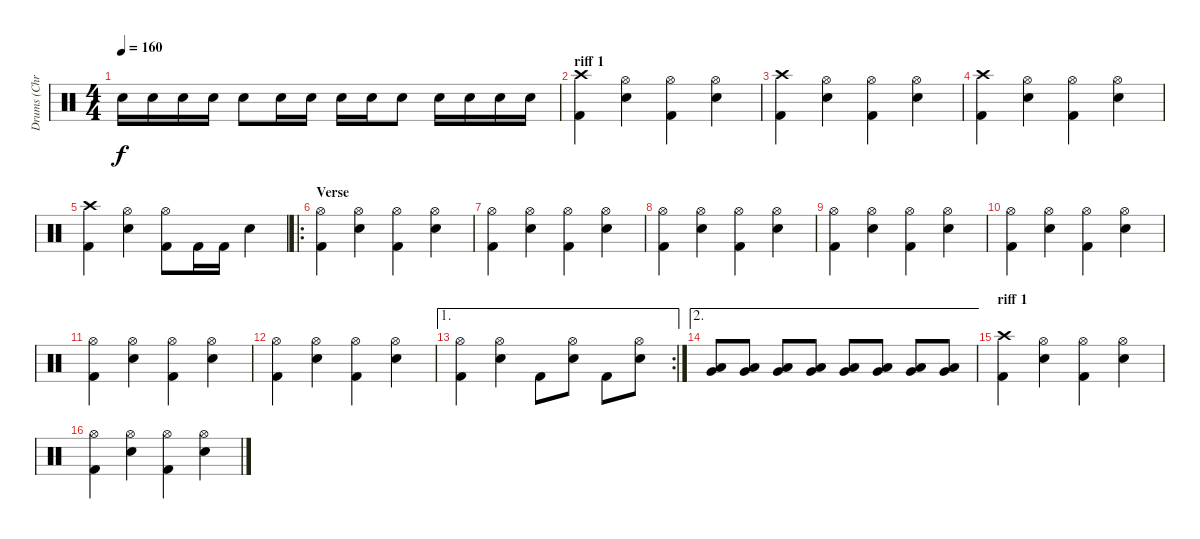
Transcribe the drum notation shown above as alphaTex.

\track ("Drums (Chris Efthimiadis)" "Drums (Chr") {instrument percussion}
\staff {score}
\articulation defaults
\ts (4 4)
\tempo 160
\clef neutral
\ks c "Snare (hit) 2".16{dy f} "Snare (hit) 2".16 "Snare (hit) 2".16 "Snare (hit) 2".16 "Snare (hit) 2".8 "Snare (hit) 2".16 "Snare (hit) 2".16 "Snare (hit) 2".16 "Snare (hit) 2".16 "Snare (hit) 2".8 "Snare (hit) 2".16 "Snare (hit) 2".16 "Snare (hit) 2".16 "Snare (hit) 2".16
|
\section ("" "riff 1")
("Crash high (hit)" "Kick (hit) 2").4 ("Hi-Hat (open)" "Snare (hit) 2").4 ("Hi-Hat (open)" "Kick (hit) 2").4 ("Hi-Hat (open)" "Snare (hit) 2").4 |
("Crash high (hit)" "Kick (hit) 2").4 ("Hi-Hat (open)" "Snare (hit) 2").4 ("Hi-Hat (open)" "Kick (hit) 2").4 ("Hi-Hat (open)" "Snare (hit) 2").4 |
("Crash high (hit)" "Kick (hit) 2").4 ("Hi-Hat (open)" "Snare (hit) 2").4 ("Hi-Hat (open)" "Kick (hit) 2").4 ("Hi-Hat (open)" "Snare (hit) 2").4 |
("Crash high (hit)" "Kick (hit) 2").4 ("Hi-Hat (open)" "Snare (hit) 2").4 ("Hi-Hat (open)" "Kick (hit) 2").8 "Kick (hit) 2".16 "Kick (hit) 2".16 "Snare (hit) 2".4 |
\ro
\section ("" "Verse")
("Hi-Hat (open)" "Kick (hit) 2").4 ("Hi-Hat (open)" "Snare (hit) 2").4 ("Hi-Hat (open)" "Kick (hit) 2").4 ("Hi-Hat (open)" "Snare (hit) 2").4 |
("Hi-Hat (open)" "Kick (hit) 2").4 ("Hi-Hat (open)" "Snare (hit) 2").4 ("Hi-Hat (open)" "Kick (hit) 2").4 ("Hi-Hat (open)" "Snare (hit) 2").4 |
("Hi-Hat (open)" "Kick (hit) 2").4 ("Hi-Hat (open)" "Snare (hit) 2").4 ("Hi-Hat (open)" "Kick (hit) 2").4 ("Hi-Hat (open)" "Snare (hit) 2").4 |
("Hi-Hat (open)" "Kick (hit) 2").4 ("Hi-Hat (open)" "Snare (hit) 2").4 ("Hi-Hat (open)" "Kick (hit) 2").4 ("Hi-Hat (open)" "Snare (hit) 2").4 |
("Hi-Hat (open)" "Kick (hit) 2").4 ("Hi-Hat (open)" "Snare (hit) 2").4 ("Hi-Hat (open)" "Kick (hit) 2").4 ("Hi-Hat (open)" "Snare (hit) 2").4 |
("Hi-Hat (open)" "Kick (hit) 2").4 ("Hi-Hat (open)" "Snare (hit) 2").4 ("Hi-Hat (open)" "Kick (hit) 2").4 ("Hi-Hat (open)" "Snare (hit) 2").4 |
("Hi-Hat (open)" "Kick (hit) 2").4 ("Hi-Hat (open)" "Snare (hit) 2").4 ("Hi-Hat (open)" "Kick (hit) 2").4 ("Hi-Hat (open)" "Snare (hit) 2").4 |
\ae 1
\rc 2
("Hi-Hat (open)" "Kick (hit) 2").4 ("Hi-Hat (open)" "Snare (hit) 2").4 "Kick (hit) 2".8 ("Hi-Hat (open)" "Snare (hit) 2").8 "Kick (hit) 2".8 ("Hi-Hat (open)" "Snare (hit) 2").8 |
\ae 2
("Very Low Tom (hit)" "Low Tom (hit)").8 ("Very Low Tom (hit)" "Low Tom (hit)").8 ("Very Low Tom (hit)" "Low Tom (hit)").8 ("Very Low Tom (hit)" "Low Tom (hit)").8 ("Very Low Tom (hit)" "Low Tom (hit)").8 ("Very Low Tom (hit)" "Low Tom (hit)").8 ("Very Low Tom (hit)" "Low Tom (hit)").8 ("Very Low Tom (hit)" "Low Tom (hit)").8 |
\section ("" "riff 1")
("Crash high (hit)" "Kick (hit) 2").4 ("Hi-Hat (open)" "Snare (hit) 2").4 ("Hi-Hat (open)" "Kick (hit) 2").4 ("Hi-Hat (open)" "Snare (hit) 2").4 |
("Hi-Hat (open)" "Kick (hit) 2").4 ("Hi-Hat (open)" "Snare (hit) 2").4 ("Hi-Hat (open)" "Kick (hit) 2").4 ("Hi-Hat (open)" "Snare (hit) 2").4
